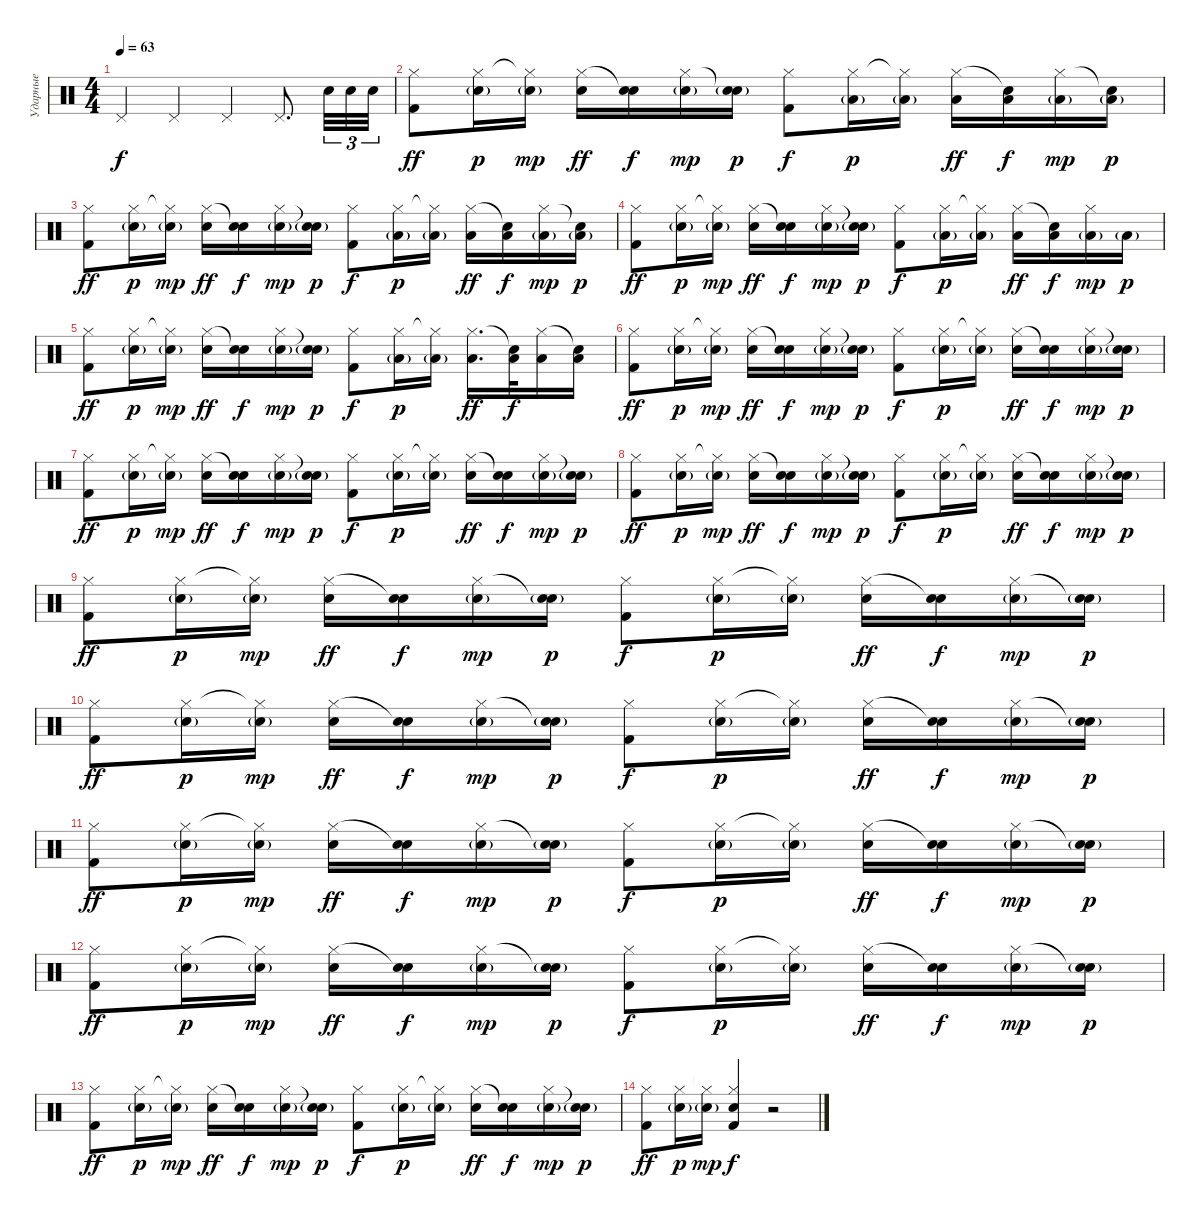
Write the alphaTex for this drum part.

\track ("Ударные" "Ударные") {instrument percussion}
\staff {score}
\articulation defaults
\ts (4 4)
\tempo 63
\clef neutral
\ks c "Pedal Hi-Hat (hit)".4{dy f} "Pedal Hi-Hat (hit)".4 "Pedal Hi-Hat (hit)".4 "Pedal Hi-Hat (hit)".8{d} "Snare (hit) 2".32{tu (3 2)} "Snare (hit) 2".32{tu (3 2)} "Snare (hit) 2".32{tu (3 2)}
|
("Hi-Hat (closed)" "Kick (hit) 2").8{dy ff volume 12} ("Hi-Hat (closed)" "Snare (hit) 2"{g}).16{dy p} ("Hi-Hat (closed)"{t} "Snare (hit) 2"{g}).16{dy mp} ("Hi-Hat (closed)" "Snare (hit) 2").16{dy ff} ("Snare (hit)"{t} "Snare (hit) 2").16{dy f} ("Hi-Hat (closed)" "Snare (hit) 2"{g}).16{dy mp} ("Snare (hit)"{t} "Snare (hit) 2"{g}).16{dy p} ("Hi-Hat (closed)" "Kick (hit) 2").8{dy f} ("Hi-Hat (closed)" "Low Floor Tom (hit)"{g}).16{dy p} ("Hi-Hat (closed)"{t} "Low Floor Tom (hit)"{g}).16 ("Hi-Hat (closed)" "Low Floor Tom (hit)").16{dy ff} ("Snare (hit)"{t} "Low Floor Tom (hit)").16{dy f} ("Hi-Hat (closed)" "Low Floor Tom (hit)"{g}).16{dy mp} ("Snare (hit)"{t} "Low Floor Tom (hit)"{g}).16{dy p} |
("Hi-Hat (closed)" "Kick (hit) 2").8{dy ff} ("Hi-Hat (closed)" "Snare (hit) 2"{g}).16{dy p} ("Hi-Hat (closed)"{t} "Snare (hit) 2"{g}).16{dy mp} ("Hi-Hat (closed)" "Snare (hit) 2").16{dy ff} ("Snare (hit)"{t} "Snare (hit) 2").16{dy f} ("Hi-Hat (closed)" "Snare (hit) 2"{g}).16{dy mp} ("Snare (hit)"{t} "Snare (hit) 2"{g}).16{dy p} ("Hi-Hat (closed)" "Kick (hit) 2").8{dy f} ("Hi-Hat (closed)" "Low Floor Tom (hit)"{g}).16{dy p} ("Hi-Hat (closed)"{t} "Low Floor Tom (hit)"{g}).16 ("Hi-Hat (closed)" "Low Floor Tom (hit)").16{dy ff} ("Snare (hit)"{t} "Low Floor Tom (hit)").16{dy f} ("Hi-Hat (closed)" "Low Floor Tom (hit)"{g}).16{dy mp} ("Snare (hit)"{t} "Low Floor Tom (hit)"{g}).16{dy p} |
("Hi-Hat (closed)" "Kick (hit) 2").8{dy ff} ("Hi-Hat (closed)" "Snare (hit) 2"{g}).16{dy p} ("Hi-Hat (closed)"{t} "Snare (hit) 2"{g}).16{dy mp} ("Hi-Hat (closed)" "Snare (hit) 2").16{dy ff} ("Snare (hit)"{t} "Snare (hit) 2").16{dy f} ("Hi-Hat (closed)" "Snare (hit) 2"{g}).16{dy mp} ("Snare (hit)"{t} "Snare (hit) 2"{g}).16{dy p} ("Hi-Hat (closed)" "Kick (hit) 2").8{dy f} ("Hi-Hat (closed)" "Low Floor Tom (hit)"{g}).16{dy p} ("Hi-Hat (closed)"{t} "Low Floor Tom (hit)"{g}).16 ("Hi-Hat (closed)" "Low Floor Tom (hit)").16{dy ff} ("Snare (hit)"{t} "Low Floor Tom (hit)").16{dy f} ("Hi-Hat (closed)" "Low Floor Tom (hit)"{g}).16{dy mp} "Low Floor Tom (hit)"{g}.16{dy p} |
("Hi-Hat (closed)" "Kick (hit) 2").8{dy ff} ("Hi-Hat (closed)" "Snare (hit) 2"{g}).16{dy p} ("Hi-Hat (closed)"{t} "Snare (hit) 2"{g}).16{dy mp} ("Hi-Hat (closed)" "Snare (hit) 2").16{dy ff} ("Snare (hit)"{t} "Snare (hit) 2").16{dy f} ("Hi-Hat (closed)" "Snare (hit) 2"{g}).16{dy mp} ("Snare (hit)"{t} "Snare (hit) 2"{g}).16{dy p} ("Hi-Hat (closed)" "Kick (hit) 2").8{dy f} ("Hi-Hat (closed)" "Low Floor Tom (hit)"{g}).16{dy p} ("Hi-Hat (closed)"{t} "Low Floor Tom (hit)"{g}).16 ("Hi-Hat (closed)" "Low Floor Tom (hit)").16{d dy ff} ("Snare (hit)"{t} "Low Floor Tom (hit)").32{dy f} ("Hi-Hat (closed)" "Low Floor Tom (hit)").16 ("Snare (hit)"{t} "Low Floor Tom (hit)").16 |
("Hi-Hat (closed)" "Kick (hit) 2").8{dy ff volume 12} ("Hi-Hat (closed)" "Snare (hit) 2"{g}).16{dy p} ("Hi-Hat (closed)"{t} "Snare (hit) 2"{g}).16{dy mp} ("Hi-Hat (closed)" "Snare (hit) 2").16{dy ff} ("Snare (hit)"{t} "Snare (hit) 2").16{dy f} ("Hi-Hat (closed)" "Snare (hit) 2"{g}).16{dy mp} ("Snare (hit)"{t} "Snare (hit) 2"{g}).16{dy p} ("Hi-Hat (closed)" "Kick (hit) 2").8{dy f} ("Hi-Hat (closed)" "Snare (hit) 2"{g}).16{dy p} ("Hi-Hat (closed)"{t} "Snare (hit) 2"{g}).16 ("Hi-Hat (closed)" "Snare (hit) 2").16{dy ff} ("Snare (hit)"{t} "Snare (hit) 2").16{dy f} ("Hi-Hat (closed)" "Snare (hit) 2"{g}).16{dy mp} ("Snare (hit)"{t} "Snare (hit) 2"{g}).16{dy p} |
("Hi-Hat (closed)" "Kick (hit) 2").8{dy ff volume 12} ("Hi-Hat (closed)" "Snare (hit) 2"{g}).16{dy p} ("Hi-Hat (closed)"{t} "Snare (hit) 2"{g}).16{dy mp} ("Hi-Hat (closed)" "Snare (hit) 2").16{dy ff} ("Snare (hit)"{t} "Snare (hit) 2").16{dy f} ("Hi-Hat (closed)" "Snare (hit) 2"{g}).16{dy mp} ("Snare (hit)"{t} "Snare (hit) 2"{g}).16{dy p} ("Hi-Hat (closed)" "Kick (hit) 2").8{dy f} ("Hi-Hat (closed)" "Snare (hit) 2"{g}).16{dy p} ("Hi-Hat (closed)"{t} "Snare (hit) 2"{g}).16 ("Hi-Hat (closed)" "Snare (hit) 2").16{dy ff} ("Snare (hit)"{t} "Snare (hit) 2").16{dy f} ("Hi-Hat (closed)" "Snare (hit) 2"{g}).16{dy mp} ("Snare (hit)"{t} "Snare (hit) 2"{g}).16{dy p} |
("Hi-Hat (closed)" "Kick (hit) 2").8{dy ff volume 12} ("Hi-Hat (closed)" "Snare (hit) 2"{g}).16{dy p} ("Hi-Hat (closed)"{t} "Snare (hit) 2"{g}).16{dy mp} ("Hi-Hat (closed)" "Snare (hit) 2").16{dy ff} ("Snare (hit)"{t} "Snare (hit) 2").16{dy f} ("Hi-Hat (closed)" "Snare (hit) 2"{g}).16{dy mp} ("Snare (hit)"{t} "Snare (hit) 2"{g}).16{dy p} ("Hi-Hat (closed)" "Kick (hit) 2").8{dy f} ("Hi-Hat (closed)" "Snare (hit) 2"{g}).16{dy p} ("Hi-Hat (closed)"{t} "Snare (hit) 2"{g}).16 ("Hi-Hat (closed)" "Snare (hit) 2").16{dy ff} ("Snare (hit)"{t} "Snare (hit) 2").16{dy f} ("Hi-Hat (closed)" "Snare (hit) 2"{g}).16{dy mp} ("Snare (hit)"{t} "Snare (hit) 2"{g}).16{dy p} |
("Hi-Hat (closed)" "Kick (hit) 2").8{dy ff volume 12} ("Hi-Hat (closed)" "Snare (hit) 2"{g}).16{dy p} ("Hi-Hat (closed)"{t} "Snare (hit) 2"{g}).16{dy mp} ("Hi-Hat (closed)" "Snare (hit) 2").16{dy ff} ("Snare (hit)"{t} "Snare (hit) 2").16{dy f} ("Hi-Hat (closed)" "Snare (hit) 2"{g}).16{dy mp} ("Snare (hit)"{t} "Snare (hit) 2"{g}).16{dy p} ("Hi-Hat (closed)" "Kick (hit) 2").8{dy f} ("Hi-Hat (closed)" "Snare (hit) 2"{g}).16{dy p} ("Hi-Hat (closed)"{t} "Snare (hit) 2"{g}).16 ("Hi-Hat (closed)" "Snare (hit) 2").16{dy ff} ("Snare (hit)"{t} "Snare (hit) 2").16{dy f} ("Hi-Hat (closed)" "Snare (hit) 2"{g}).16{dy mp} ("Snare (hit)"{t} "Snare (hit) 2"{g}).16{dy p} |
("Hi-Hat (closed)" "Kick (hit) 2").8{dy ff volume 12} ("Hi-Hat (closed)" "Snare (hit) 2"{g}).16{dy p} ("Hi-Hat (closed)"{t} "Snare (hit) 2"{g}).16{dy mp} ("Hi-Hat (closed)" "Snare (hit) 2").16{dy ff} ("Snare (hit)"{t} "Snare (hit) 2").16{dy f} ("Hi-Hat (closed)" "Snare (hit) 2"{g}).16{dy mp} ("Snare (hit)"{t} "Snare (hit) 2"{g}).16{dy p} ("Hi-Hat (closed)" "Kick (hit) 2").8{dy f} ("Hi-Hat (closed)" "Snare (hit) 2"{g}).16{dy p} ("Hi-Hat (closed)"{t} "Snare (hit) 2"{g}).16 ("Hi-Hat (closed)" "Snare (hit) 2").16{dy ff} ("Snare (hit)"{t} "Snare (hit) 2").16{dy f} ("Hi-Hat (closed)" "Snare (hit) 2"{g}).16{dy mp} ("Snare (hit)"{t} "Snare (hit) 2"{g}).16{dy p} |
("Hi-Hat (closed)" "Kick (hit) 2").8{dy ff volume 12} ("Hi-Hat (closed)" "Snare (hit) 2"{g}).16{dy p} ("Hi-Hat (closed)"{t} "Snare (hit) 2"{g}).16{dy mp} ("Hi-Hat (closed)" "Snare (hit) 2").16{dy ff} ("Snare (hit)"{t} "Snare (hit) 2").16{dy f} ("Hi-Hat (closed)" "Snare (hit) 2"{g}).16{dy mp} ("Snare (hit)"{t} "Snare (hit) 2"{g}).16{dy p} ("Hi-Hat (closed)" "Kick (hit) 2").8{dy f} ("Hi-Hat (closed)" "Snare (hit) 2"{g}).16{dy p} ("Hi-Hat (closed)"{t} "Snare (hit) 2"{g}).16 ("Hi-Hat (closed)" "Snare (hit) 2").16{dy ff} ("Snare (hit)"{t} "Snare (hit) 2").16{dy f} ("Hi-Hat (closed)" "Snare (hit) 2"{g}).16{dy mp} ("Snare (hit)"{t} "Snare (hit) 2"{g}).16{dy p} |
("Hi-Hat (closed)" "Kick (hit) 2").8{dy ff volume 12} ("Hi-Hat (closed)" "Snare (hit) 2"{g}).16{dy p} ("Hi-Hat (closed)"{t} "Snare (hit) 2"{g}).16{dy mp} ("Hi-Hat (closed)" "Snare (hit) 2").16{dy ff} ("Snare (hit)"{t} "Snare (hit) 2").16{dy f} ("Hi-Hat (closed)" "Snare (hit) 2"{g}).16{dy mp} ("Snare (hit)"{t} "Snare (hit) 2"{g}).16{dy p} ("Hi-Hat (closed)" "Kick (hit) 2").8{dy f} ("Hi-Hat (closed)" "Snare (hit) 2"{g}).16{dy p} ("Hi-Hat (closed)"{t} "Snare (hit) 2"{g}).16 ("Hi-Hat (closed)" "Snare (hit) 2").16{dy ff} ("Snare (hit)"{t} "Snare (hit) 2").16{dy f} ("Hi-Hat (closed)" "Snare (hit) 2"{g}).16{dy mp} ("Snare (hit)"{t} "Snare (hit) 2"{g}).16{dy p} |
("Hi-Hat (closed)" "Kick (hit) 2").8{dy ff volume 12} ("Hi-Hat (closed)" "Snare (hit) 2"{g}).16{dy p} ("Hi-Hat (closed)"{t} "Snare (hit) 2"{g}).16{dy mp} ("Hi-Hat (closed)" "Snare (hit) 2").16{dy ff} ("Snare (hit)"{t} "Snare (hit) 2").16{dy f} ("Hi-Hat (closed)" "Snare (hit) 2"{g}).16{dy mp} ("Snare (hit)"{t} "Snare (hit) 2"{g}).16{dy p} ("Hi-Hat (closed)" "Kick (hit) 2").8{dy f} ("Hi-Hat (closed)" "Snare (hit) 2"{g}).16{dy p} ("Hi-Hat (closed)"{t} "Snare (hit) 2"{g}).16 ("Hi-Hat (closed)" "Snare (hit) 2").16{dy ff} ("Snare (hit)"{t} "Snare (hit) 2").16{dy f} ("Hi-Hat (closed)" "Snare (hit) 2"{g}).16{dy mp} ("Snare (hit)"{t} "Snare (hit) 2"{g}).16{dy p} |
("Hi-Hat (closed)" "Kick (hit) 2").8{dy ff volume 12} ("Hi-Hat (closed)" "Snare (hit) 2"{g}).16{dy p} ("Hi-Hat (closed)"{t} "Snare (hit) 2"{g}).16{dy mp} ("Kick (hit) 2" "Snare (hit) 2" "Hi-Hat (closed)").4{dy f} r.2
